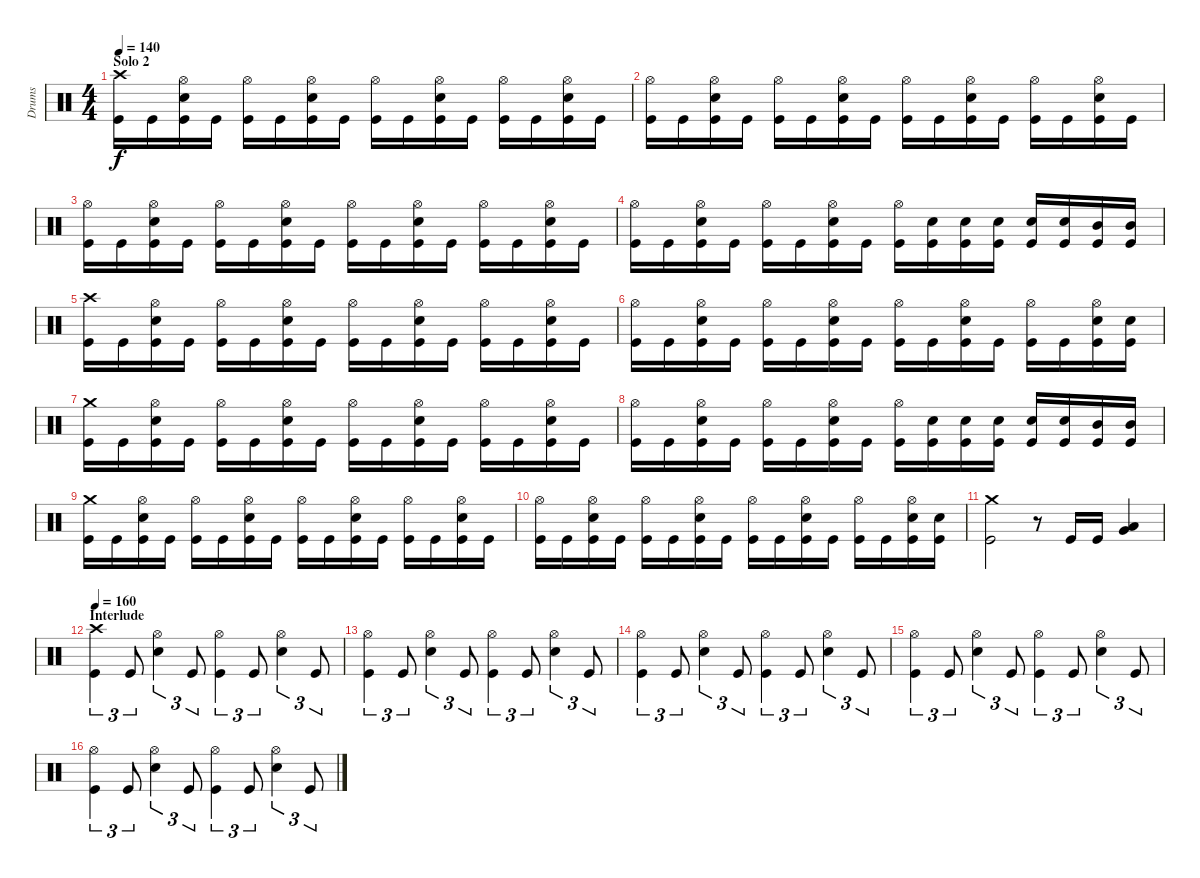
\track ("Drums" "Drums") {instrument percussion}
\staff {score}
\articulation defaults
\ts (4 4)
\section ("" "Solo 2")
\tempo 140
\clef neutral
\ks c
("Crash high (hit)" "Kick (hit)").16{dy f} "Kick (hit)".16 ("Hi-Hat (open)" "Snare (hit) 2" "Kick (hit)").16 "Kick (hit)".16 ("Hi-Hat (open)" "Kick (hit)").16 "Kick (hit)".16 ("Hi-Hat (open)" "Snare (hit) 2" "Kick (hit)").16 "Kick (hit)".16 ("Hi-Hat (open)" "Kick (hit)").16 "Kick (hit)".16 ("Hi-Hat (open)" "Snare (hit) 2" "Kick (hit)").16 "Kick (hit)".16 ("Hi-Hat (open)" "Kick (hit)").16 "Kick (hit)".16 ("Hi-Hat (open)" "Snare (hit) 2" "Kick (hit)").16 "Kick (hit)".16 |
("Hi-Hat (open)" "Kick (hit)").16 "Kick (hit)".16 ("Hi-Hat (open)" "Snare (hit) 2" "Kick (hit)").16 "Kick (hit)".16 ("Hi-Hat (open)" "Kick (hit)").16 "Kick (hit)".16 ("Hi-Hat (open)" "Snare (hit) 2" "Kick (hit)").16 "Kick (hit)".16 ("Hi-Hat (open)" "Kick (hit)").16 "Kick (hit)".16 ("Hi-Hat (open)" "Snare (hit) 2" "Kick (hit)").16 "Kick (hit)".16 ("Hi-Hat (open)" "Kick (hit)").16 "Kick (hit)".16 ("Hi-Hat (open)" "Snare (hit) 2" "Kick (hit)").16 "Kick (hit)".16 |
("Hi-Hat (open)" "Kick (hit)").16 "Kick (hit)".16 ("Hi-Hat (open)" "Snare (hit) 2" "Kick (hit)").16 "Kick (hit)".16 ("Hi-Hat (open)" "Kick (hit)").16 "Kick (hit)".16 ("Hi-Hat (open)" "Snare (hit) 2" "Kick (hit)").16 "Kick (hit)".16 ("Hi-Hat (open)" "Kick (hit)").16 "Kick (hit)".16 ("Hi-Hat (open)" "Snare (hit) 2" "Kick (hit)").16 "Kick (hit)".16 ("Hi-Hat (open)" "Kick (hit)").16 "Kick (hit)".16 ("Hi-Hat (open)" "Snare (hit) 2" "Kick (hit)").16 "Kick (hit)".16 |
("Hi-Hat (open)" "Kick (hit)").16 "Kick (hit)".16 ("Hi-Hat (open)" "Snare (hit) 2" "Kick (hit)").16 "Kick (hit)".16 ("Hi-Hat (open)" "Kick (hit)").16 "Kick (hit)".16 ("Hi-Hat (open)" "Snare (hit) 2" "Kick (hit)").16 "Kick (hit)".16 ("Hi-Hat (open)" "Kick (hit)").16 ("Snare (hit) 2" "Kick (hit)").16 ("Snare (hit) 2" "Kick (hit)").16 ("Snare (hit) 2" "Kick (hit)").16 ("Snare (hit) 2" "Kick (hit)").16 ("Snare (hit) 2" "Kick (hit)").16 ("Mid Tom (hit)" "Kick (hit)").16 ("Mid Tom (hit)" "Kick (hit)").16 |
("Crash high (hit)" "Kick (hit)").16 "Kick (hit)".16 ("Hi-Hat (open)" "Snare (hit) 2" "Kick (hit)").16 "Kick (hit)".16 ("Hi-Hat (open)" "Kick (hit)").16 "Kick (hit)".16 ("Hi-Hat (open)" "Snare (hit) 2" "Kick (hit)").16 "Kick (hit)".16 ("Hi-Hat (open)" "Kick (hit)").16 "Kick (hit)".16 ("Hi-Hat (open)" "Snare (hit) 2" "Kick (hit)").16 "Kick (hit)".16 ("Hi-Hat (open)" "Kick (hit)").16 "Kick (hit)".16 ("Hi-Hat (open)" "Snare (hit) 2" "Kick (hit)").16 "Kick (hit)".16 |
("Hi-Hat (open)" "Kick (hit)").16 "Kick (hit)".16 ("Hi-Hat (open)" "Snare (hit) 2" "Kick (hit)").16 "Kick (hit)".16 ("Hi-Hat (open)" "Kick (hit)").16 "Kick (hit)".16 ("Hi-Hat (open)" "Snare (hit) 2" "Kick (hit)").16 "Kick (hit)".16 ("Hi-Hat (open)" "Kick (hit)").16 "Kick (hit)".16 ("Hi-Hat (open)" "Snare (hit) 2" "Kick (hit)").16 "Kick (hit)".16 ("Hi-Hat (open)" "Kick (hit)").16 "Kick (hit)".16 ("Hi-Hat (open)" "Snare (hit) 2" "Kick (hit)").16 ("Snare (hit) 2" "Kick (hit)").16 |
("Crash medium (hit)" "Kick (hit)").16 "Kick (hit)".16 ("Hi-Hat (open)" "Snare (hit) 2" "Kick (hit)").16 "Kick (hit)".16 ("Hi-Hat (open)" "Kick (hit)").16 "Kick (hit)".16 ("Hi-Hat (open)" "Snare (hit) 2" "Kick (hit)").16 "Kick (hit)".16 ("Hi-Hat (open)" "Kick (hit)").16 "Kick (hit)".16 ("Hi-Hat (open)" "Snare (hit) 2" "Kick (hit)").16 "Kick (hit)".16 ("Hi-Hat (open)" "Kick (hit)").16 "Kick (hit)".16 ("Hi-Hat (open)" "Snare (hit) 2" "Kick (hit)").16 "Kick (hit)".16 |
("Hi-Hat (open)" "Kick (hit)").16 "Kick (hit)".16 ("Hi-Hat (open)" "Snare (hit) 2" "Kick (hit)").16 "Kick (hit)".16 ("Hi-Hat (open)" "Kick (hit)").16 "Kick (hit)".16 ("Hi-Hat (open)" "Snare (hit) 2" "Kick (hit)").16 "Kick (hit)".16 ("Hi-Hat (open)" "Kick (hit)").16 ("Snare (hit) 2" "Kick (hit)").16 ("Snare (hit) 2" "Kick (hit)").16 ("Snare (hit) 2" "Kick (hit)").16 ("Snare (hit) 2" "Kick (hit)").16 ("Snare (hit) 2" "Kick (hit)").16 ("Mid Tom (hit)" "Kick (hit)").16 ("Mid Tom (hit)" "Kick (hit)").16 |
("Crash medium (hit)" "Kick (hit)").16 "Kick (hit)".16 ("Hi-Hat (open)" "Snare (hit) 2" "Kick (hit)").16 "Kick (hit)".16 ("Hi-Hat (open)" "Kick (hit)").16 "Kick (hit)".16 ("Hi-Hat (open)" "Snare (hit) 2" "Kick (hit)").16 "Kick (hit)".16 ("Hi-Hat (open)" "Kick (hit)").16 "Kick (hit)".16 ("Hi-Hat (open)" "Snare (hit) 2" "Kick (hit)").16 "Kick (hit)".16 ("Hi-Hat (open)" "Kick (hit)").16 "Kick (hit)".16 ("Hi-Hat (open)" "Snare (hit) 2" "Kick (hit)").16 "Kick (hit)".16 |
("Hi-Hat (open)" "Kick (hit)").16 "Kick (hit)".16 ("Hi-Hat (open)" "Snare (hit) 2" "Kick (hit)").16 "Kick (hit)".16 ("Hi-Hat (open)" "Kick (hit)").16 "Kick (hit)".16 ("Hi-Hat (open)" "Snare (hit) 2" "Kick (hit)").16 "Kick (hit)".16 ("Hi-Hat (open)" "Kick (hit)").16 "Kick (hit)".16 ("Hi-Hat (open)" "Snare (hit) 2" "Kick (hit)").16 "Kick (hit)".16 ("Hi-Hat (open)" "Kick (hit)").16 "Kick (hit)".16 ("Hi-Hat (open)" "Snare (hit) 2" "Kick (hit)").16 ("Snare (hit) 2" "Kick (hit)").16 |
("Crash medium (hit)" "Kick (hit)").2 r.8 "Kick (hit)".16 "Kick (hit)".16 ("Very Low Tom (hit)" "Low Tom (hit)").4 |
\section ("" "Interlude")
\tempo 160
("Crash high (hit)" "Kick (hit)").4{tu (3 2)} "Kick (hit)".8{tu (3 2)} ("Hi-Hat (open)" "Electric Snare (hit)").4{tu (3 2)} "Kick (hit)".8{tu (3 2)} ("Hi-Hat (open)" "Kick (hit)").4{tu (3 2)} "Kick (hit)".8{tu (3 2)} ("Hi-Hat (open)" "Electric Snare (hit)").4{tu (3 2)} "Kick (hit)".8{tu (3 2)} |
("Hi-Hat (open)" "Kick (hit)").4{tu (3 2)} "Kick (hit)".8{tu (3 2)} ("Hi-Hat (open)" "Electric Snare (hit)").4{tu (3 2)} "Kick (hit)".8{tu (3 2)} ("Hi-Hat (open)" "Kick (hit)").4{tu (3 2)} "Kick (hit)".8{tu (3 2)} ("Hi-Hat (open)" "Electric Snare (hit)").4{tu (3 2)} "Kick (hit)".8{tu (3 2)} |
("Hi-Hat (open)" "Kick (hit)").4{tu (3 2)} "Kick (hit)".8{tu (3 2)} ("Hi-Hat (open)" "Electric Snare (hit)").4{tu (3 2)} "Kick (hit)".8{tu (3 2)} ("Hi-Hat (open)" "Kick (hit)").4{tu (3 2)} "Kick (hit)".8{tu (3 2)} ("Hi-Hat (open)" "Electric Snare (hit)").4{tu (3 2)} "Kick (hit)".8{tu (3 2)} |
("Hi-Hat (open)" "Kick (hit)").4{tu (3 2)} "Kick (hit)".8{tu (3 2)} ("Hi-Hat (open)" "Electric Snare (hit)").4{tu (3 2)} "Kick (hit)".8{tu (3 2)} ("Hi-Hat (open)" "Kick (hit)").4{tu (3 2)} "Kick (hit)".8{tu (3 2)} ("Hi-Hat (open)" "Electric Snare (hit)").4{tu (3 2)} "Kick (hit)".8{tu (3 2)} |
("Hi-Hat (open)" "Kick (hit)").4{tu (3 2)} "Kick (hit)".8{tu (3 2)} ("Hi-Hat (open)" "Electric Snare (hit)").4{tu (3 2)} "Kick (hit)".8{tu (3 2)} ("Hi-Hat (open)" "Kick (hit)").4{tu (3 2)} "Kick (hit)".8{tu (3 2)} ("Hi-Hat (open)" "Electric Snare (hit)").4{tu (3 2)} "Kick (hit)".8{tu (3 2)}
